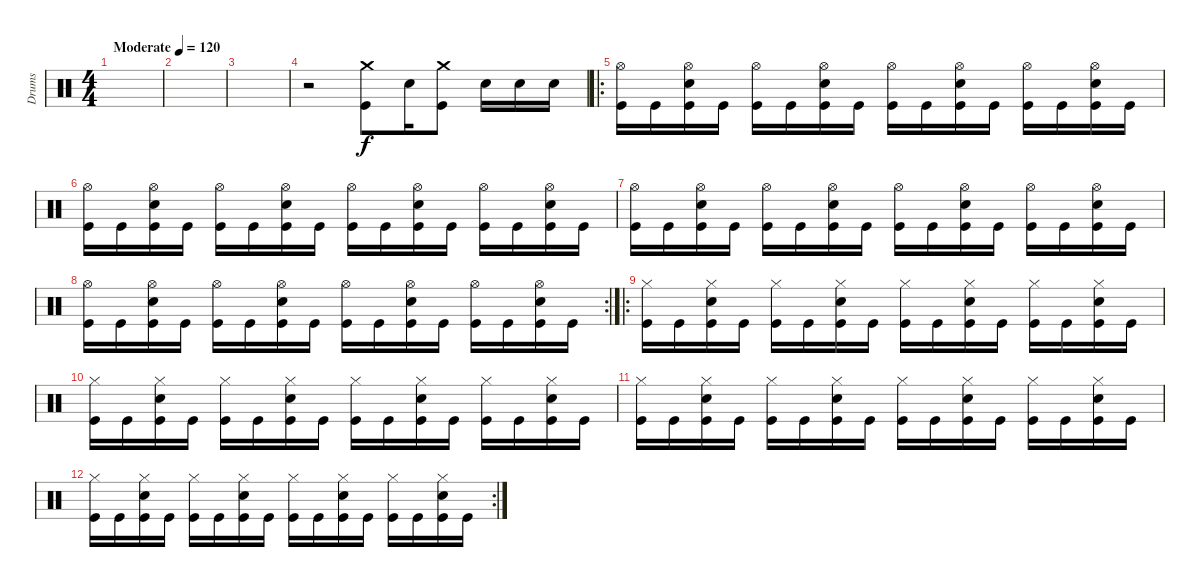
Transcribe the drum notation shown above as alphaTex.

\track ("Drums" "Drums") {instrument percussion}
\staff {score}
\articulation defaults
\ts (4 4)
\tempo (120 "Moderate")
\clef neutral
\ks c
|
|
|
r.2 ("Crash medium (hit)" "Kick (hit)").8 "Snare (hit) 2".16 ("Crash medium (hit)" "Kick (hit)").8 "Snare (hit) 2".16 "Snare (hit) 2".16 "Snare (hit) 2".16 |
\ro
("Hi-Hat (open)" "Kick (hit)").16 "Kick (hit)".16 ("Hi-Hat (open)" "Snare (hit) 2" "Kick (hit)").16 "Kick (hit)".16 ("Hi-Hat (open)" "Kick (hit)").16 "Kick (hit)".16 ("Hi-Hat (open)" "Snare (hit) 2" "Kick (hit)").16 "Kick (hit)".16 ("Hi-Hat (open)" "Kick (hit)").16 "Kick (hit)".16 ("Hi-Hat (open)" "Snare (hit) 2" "Kick (hit)").16 "Kick (hit)".16 ("Hi-Hat (open)" "Kick (hit)").16 "Kick (hit)".16 ("Hi-Hat (open)" "Snare (hit) 2" "Kick (hit)").16 "Kick (hit)".16 |
("Hi-Hat (open)" "Kick (hit)").16 "Kick (hit)".16 ("Hi-Hat (open)" "Snare (hit) 2" "Kick (hit)").16 "Kick (hit)".16 ("Hi-Hat (open)" "Kick (hit)").16 "Kick (hit)".16 ("Hi-Hat (open)" "Snare (hit) 2" "Kick (hit)").16 "Kick (hit)".16 ("Hi-Hat (open)" "Kick (hit)").16 "Kick (hit)".16 ("Hi-Hat (open)" "Snare (hit) 2" "Kick (hit)").16 "Kick (hit)".16 ("Hi-Hat (open)" "Kick (hit)").16 "Kick (hit)".16 ("Hi-Hat (open)" "Snare (hit) 2" "Kick (hit)").16 "Kick (hit)".16 |
("Hi-Hat (open)" "Kick (hit)").16 "Kick (hit)".16 ("Hi-Hat (open)" "Snare (hit) 2" "Kick (hit)").16 "Kick (hit)".16 ("Hi-Hat (open)" "Kick (hit)").16 "Kick (hit)".16 ("Hi-Hat (open)" "Snare (hit) 2" "Kick (hit)").16 "Kick (hit)".16 ("Hi-Hat (open)" "Kick (hit)").16 "Kick (hit)".16 ("Hi-Hat (open)" "Snare (hit) 2" "Kick (hit)").16 "Kick (hit)".16 ("Hi-Hat (open)" "Kick (hit)").16 "Kick (hit)".16 ("Hi-Hat (open)" "Snare (hit) 2" "Kick (hit)").16 "Kick (hit)".16 |
\rc 2
("Hi-Hat (open)" "Kick (hit)").16 "Kick (hit)".16 ("Hi-Hat (open)" "Snare (hit) 2" "Kick (hit)").16 "Kick (hit)".16 ("Hi-Hat (open)" "Kick (hit)").16 "Kick (hit)".16 ("Hi-Hat (open)" "Snare (hit) 2" "Kick (hit)").16 "Kick (hit)".16 ("Hi-Hat (open)" "Kick (hit)").16 "Kick (hit)".16 ("Hi-Hat (open)" "Snare (hit) 2" "Kick (hit)").16 "Kick (hit)".16 ("Hi-Hat (open)" "Kick (hit)").16 "Kick (hit)".16 ("Hi-Hat (open)" "Snare (hit) 2" "Kick (hit)").16 "Kick (hit)".16 |
\ro
("Hi-Hat (closed)" "Kick (hit)").16 "Kick (hit)".16 ("Hi-Hat (closed)" "Snare (hit) 2" "Kick (hit)").16 "Kick (hit)".16 ("Hi-Hat (closed)" "Kick (hit)").16 "Kick (hit)".16 ("Hi-Hat (closed)" "Snare (hit) 2" "Kick (hit)").16 "Kick (hit)".16 ("Hi-Hat (closed)" "Kick (hit)").16 "Kick (hit)".16 ("Hi-Hat (closed)" "Snare (hit) 2" "Kick (hit)").16 "Kick (hit)".16 ("Hi-Hat (closed)" "Kick (hit)").16 "Kick (hit)".16 ("Hi-Hat (closed)" "Snare (hit) 2" "Kick (hit)").16 "Kick (hit)".16 |
("Hi-Hat (closed)" "Kick (hit)").16 "Kick (hit)".16 ("Hi-Hat (closed)" "Snare (hit) 2" "Kick (hit)").16 "Kick (hit)".16 ("Hi-Hat (closed)" "Kick (hit)").16 "Kick (hit)".16 ("Hi-Hat (closed)" "Snare (hit) 2" "Kick (hit)").16 "Kick (hit)".16 ("Hi-Hat (closed)" "Kick (hit)").16 "Kick (hit)".16 ("Hi-Hat (closed)" "Snare (hit) 2" "Kick (hit)").16 "Kick (hit)".16 ("Hi-Hat (closed)" "Kick (hit)").16 "Kick (hit)".16 ("Hi-Hat (closed)" "Snare (hit) 2" "Kick (hit)").16 "Kick (hit)".16 |
("Hi-Hat (closed)" "Kick (hit)").16 "Kick (hit)".16 ("Hi-Hat (closed)" "Snare (hit) 2" "Kick (hit)").16 "Kick (hit)".16 ("Hi-Hat (closed)" "Kick (hit)").16 "Kick (hit)".16 ("Hi-Hat (closed)" "Snare (hit) 2" "Kick (hit)").16 "Kick (hit)".16 ("Hi-Hat (closed)" "Kick (hit)").16 "Kick (hit)".16 ("Hi-Hat (closed)" "Snare (hit) 2" "Kick (hit)").16 "Kick (hit)".16 ("Hi-Hat (closed)" "Kick (hit)").16 "Kick (hit)".16 ("Hi-Hat (closed)" "Snare (hit) 2" "Kick (hit)").16 "Kick (hit)".16 |
\rc 2
("Hi-Hat (closed)" "Kick (hit)").16 "Kick (hit)".16 ("Hi-Hat (closed)" "Snare (hit) 2" "Kick (hit)").16 "Kick (hit)".16 ("Hi-Hat (closed)" "Kick (hit)").16 "Kick (hit)".16 ("Hi-Hat (closed)" "Snare (hit) 2" "Kick (hit)").16 "Kick (hit)".16 ("Hi-Hat (closed)" "Kick (hit)").16 "Kick (hit)".16 ("Hi-Hat (closed)" "Snare (hit) 2" "Kick (hit)").16 "Kick (hit)".16 ("Hi-Hat (closed)" "Kick (hit)").16 "Kick (hit)".16 ("Hi-Hat (closed)" "Snare (hit) 2" "Kick (hit)").16 "Kick (hit)".16
